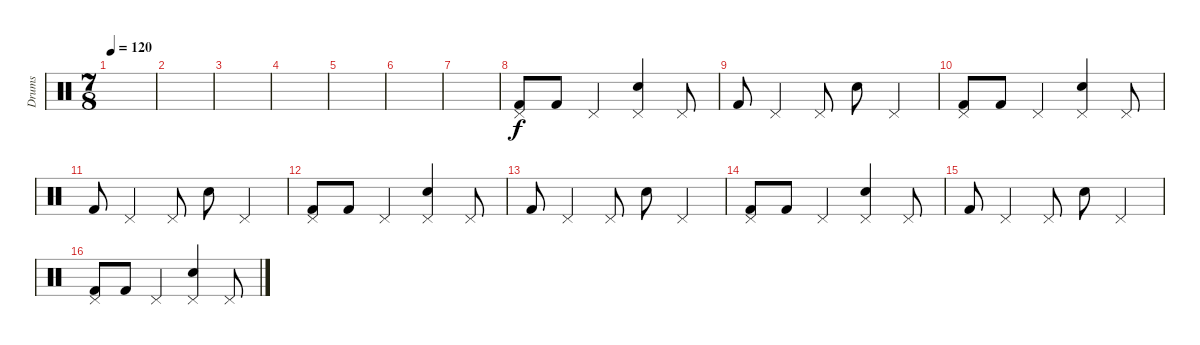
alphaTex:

\track ("Drums" "Drums") {instrument percussion}
\staff {score}
\articulation defaults
\ts (7 8)
\tempo 120
\clef neutral
\ks c
|
|
|
|
|
|
|
("Pedal Hi-Hat (hit)" "Kick (hit) 2").8 "Kick (hit) 2".8 "Pedal Hi-Hat (hit)".4 ("Pedal Hi-Hat (hit)" "Electric Snare (hit)").4 "Pedal Hi-Hat (hit)".8 |
"Kick (hit) 2".8 "Pedal Hi-Hat (hit)".4 "Pedal Hi-Hat (hit)".8 "Electric Snare (hit)".8 "Pedal Hi-Hat (hit)".4 |
("Pedal Hi-Hat (hit)" "Kick (hit) 2").8 "Kick (hit) 2".8 "Pedal Hi-Hat (hit)".4 ("Pedal Hi-Hat (hit)" "Electric Snare (hit)").4 "Pedal Hi-Hat (hit)".8 |
"Kick (hit) 2".8 "Pedal Hi-Hat (hit)".4 "Pedal Hi-Hat (hit)".8 "Electric Snare (hit)".8 "Pedal Hi-Hat (hit)".4 |
("Pedal Hi-Hat (hit)" "Kick (hit) 2").8 "Kick (hit) 2".8 "Pedal Hi-Hat (hit)".4 ("Pedal Hi-Hat (hit)" "Electric Snare (hit)").4 "Pedal Hi-Hat (hit)".8 |
"Kick (hit) 2".8 "Pedal Hi-Hat (hit)".4 "Pedal Hi-Hat (hit)".8 "Electric Snare (hit)".8 "Pedal Hi-Hat (hit)".4 |
("Pedal Hi-Hat (hit)" "Kick (hit) 2").8 "Kick (hit) 2".8 "Pedal Hi-Hat (hit)".4 ("Pedal Hi-Hat (hit)" "Electric Snare (hit)").4 "Pedal Hi-Hat (hit)".8 |
"Kick (hit) 2".8 "Pedal Hi-Hat (hit)".4 "Pedal Hi-Hat (hit)".8 "Electric Snare (hit)".8 "Pedal Hi-Hat (hit)".4 |
("Pedal Hi-Hat (hit)" "Kick (hit) 2").8 "Kick (hit) 2".8 "Pedal Hi-Hat (hit)".4 ("Pedal Hi-Hat (hit)" "Electric Snare (hit)").4 "Pedal Hi-Hat (hit)".8
